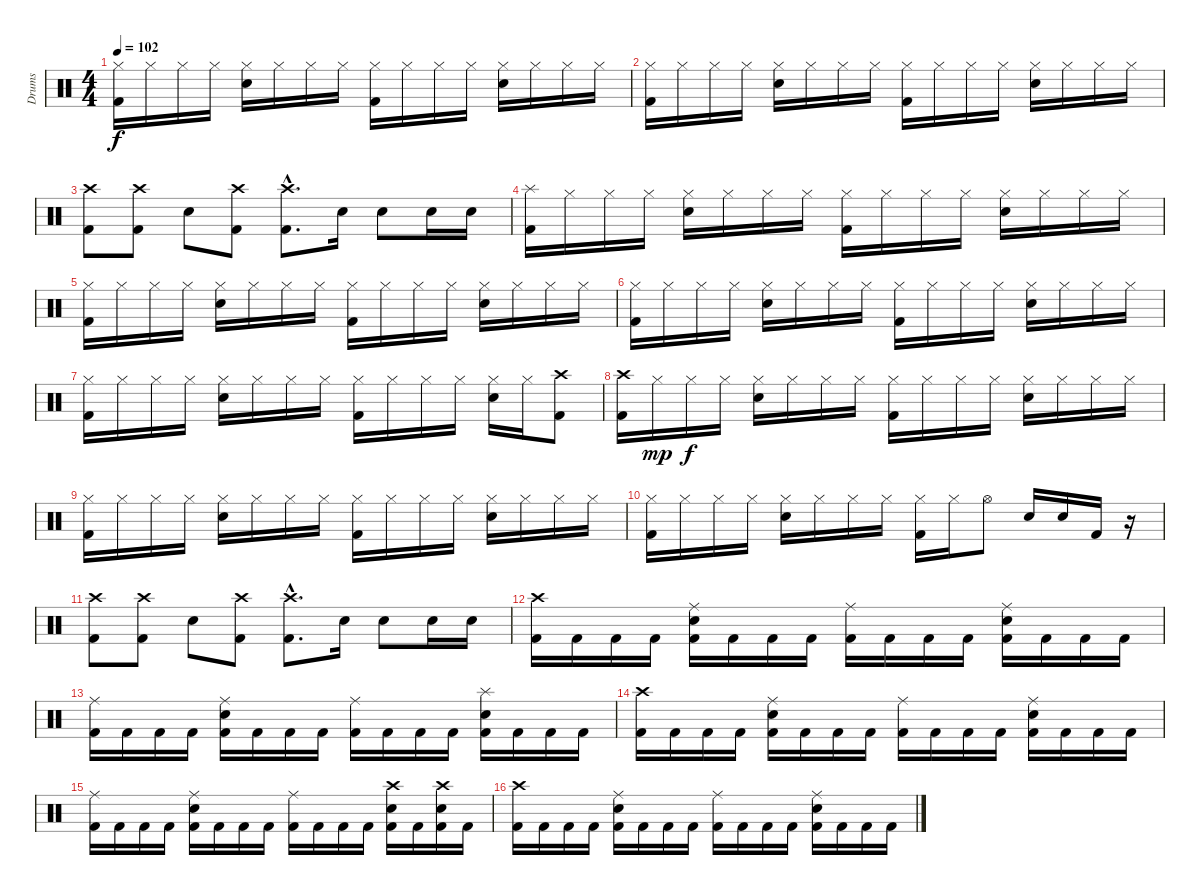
\track ("Drums" "Drums") {instrument percussion}
\staff {score}
\articulation defaults
\ts (4 4)
\tempo 102
\clef neutral
\ks c
("Hi-Hat (closed)" "Kick (hit) 2").16{dy f} "Hi-Hat (closed)".16 "Hi-Hat (closed)".16 "Hi-Hat (closed)".16 ("Hi-Hat (closed)" "Snare (hit) 2").16 "Hi-Hat (closed)".16 "Hi-Hat (closed)".16 "Hi-Hat (closed)".16 ("Hi-Hat (closed)" "Kick (hit) 2").16 "Hi-Hat (closed)".16 "Hi-Hat (closed)".16 "Hi-Hat (closed)".16 ("Hi-Hat (closed)" "Snare (hit) 2").16 "Hi-Hat (closed)".16 "Hi-Hat (closed)".16 "Hi-Hat (closed)".16 |
("Hi-Hat (closed)" "Kick (hit) 2").16 "Hi-Hat (closed)".16 "Hi-Hat (closed)".16 "Hi-Hat (closed)".16 ("Hi-Hat (closed)" "Snare (hit) 2").16 "Hi-Hat (closed)".16 "Hi-Hat (closed)".16 "Hi-Hat (closed)".16 ("Hi-Hat (closed)" "Kick (hit) 2").16 "Hi-Hat (closed)".16 "Hi-Hat (closed)".16 "Hi-Hat (closed)".16 ("Hi-Hat (closed)" "Snare (hit) 2").16 "Hi-Hat (closed)".16 "Hi-Hat (closed)".16 "Hi-Hat (closed)".16 |
("Crash high (hit)" "Kick (hit) 2").8 ("Crash high (hit)" "Kick (hit) 2").8 "Snare (hit) 2".8 ("Crash high (hit)" "Kick (hit) 2").8 ("Crash high (hit)"{hac} "Kick (hit) 2"{hac}).8{d} "Snare (hit) 2".16 "Snare (hit) 2".8 "Snare (hit) 2".16 "Snare (hit) 2".16 |
("Splash (hit)" "Kick (hit) 2").16 "Hi-Hat (closed)".16 "Hi-Hat (closed)".16 "Hi-Hat (closed)".16 ("Hi-Hat (closed)" "Snare (hit) 2").16 "Hi-Hat (closed)".16 "Hi-Hat (closed)".16 "Hi-Hat (closed)".16 ("Hi-Hat (closed)" "Kick (hit) 2").16 "Hi-Hat (closed)".16 "Hi-Hat (closed)".16 "Hi-Hat (closed)".16 ("Hi-Hat (closed)" "Snare (hit) 2").16 "Hi-Hat (closed)".16 "Hi-Hat (closed)".16 "Hi-Hat (closed)".16 |
("Hi-Hat (closed)" "Kick (hit) 2").16 "Hi-Hat (closed)".16 "Hi-Hat (closed)".16 "Hi-Hat (closed)".16 ("Hi-Hat (closed)" "Snare (hit) 2").16 "Hi-Hat (closed)".16 "Hi-Hat (closed)".16 "Hi-Hat (closed)".16 ("Hi-Hat (closed)" "Kick (hit) 2").16 "Hi-Hat (closed)".16 "Hi-Hat (closed)".16 "Hi-Hat (closed)".16 ("Hi-Hat (closed)" "Snare (hit) 2").16 "Hi-Hat (closed)".16 "Hi-Hat (closed)".16 "Hi-Hat (closed)".16 |
("Hi-Hat (closed)" "Kick (hit) 2").16 "Hi-Hat (closed)".16 "Hi-Hat (closed)".16 "Hi-Hat (closed)".16 ("Hi-Hat (closed)" "Snare (hit) 2").16 "Hi-Hat (closed)".16 "Hi-Hat (closed)".16 "Hi-Hat (closed)".16 ("Hi-Hat (closed)" "Kick (hit) 2").16 "Hi-Hat (closed)".16 "Hi-Hat (closed)".16 "Hi-Hat (closed)".16 ("Hi-Hat (closed)" "Snare (hit) 2").16 "Hi-Hat (closed)".16 "Hi-Hat (closed)".16 "Hi-Hat (closed)".16 |
("Hi-Hat (closed)" "Kick (hit) 2").16 "Hi-Hat (closed)".16 "Hi-Hat (closed)".16 "Hi-Hat (closed)".16 ("Hi-Hat (closed)" "Snare (hit) 2").16 "Hi-Hat (closed)".16 "Hi-Hat (closed)".16 "Hi-Hat (closed)".16 ("Hi-Hat (closed)" "Kick (hit) 2").16 "Hi-Hat (closed)".16 "Hi-Hat (closed)".16 "Hi-Hat (closed)".16 ("Hi-Hat (closed)" "Snare (hit) 2").16 "Hi-Hat (closed)".16 ("Crash high (hit)" "Kick (hit) 2").8 |
("Crash high (hit)" "Kick (hit) 2").16 "Hi-Hat (closed)".16{dy mp} "Hi-Hat (closed)".16{dy f} "Hi-Hat (closed)".16 ("Hi-Hat (closed)" "Snare (hit) 2").16 "Hi-Hat (closed)".16 "Hi-Hat (closed)".16 "Hi-Hat (closed)".16 ("Hi-Hat (closed)" "Kick (hit) 2").16 "Hi-Hat (closed)".16 "Hi-Hat (closed)".16 "Hi-Hat (closed)".16 ("Hi-Hat (closed)" "Snare (hit) 2").16 "Hi-Hat (closed)".16 "Hi-Hat (closed)".16 "Hi-Hat (closed)".16 |
("Hi-Hat (closed)" "Kick (hit) 2").16 "Hi-Hat (closed)".16 "Hi-Hat (closed)".16 "Hi-Hat (closed)".16 ("Hi-Hat (closed)" "Snare (hit) 2").16 "Hi-Hat (closed)".16 "Hi-Hat (closed)".16 "Hi-Hat (closed)".16 ("Hi-Hat (closed)" "Kick (hit) 2").16 "Hi-Hat (closed)".16 "Hi-Hat (closed)".16 "Hi-Hat (closed)".16 ("Hi-Hat (closed)" "Snare (hit) 2").16 "Hi-Hat (closed)".16 "Hi-Hat (closed)".16 "Hi-Hat (closed)".16 |
("Hi-Hat (closed)" "Kick (hit) 2").16 "Hi-Hat (closed)".16 "Hi-Hat (closed)".16 "Hi-Hat (closed)".16 ("Hi-Hat (closed)" "Snare (hit) 2").16 "Hi-Hat (closed)".16 "Hi-Hat (closed)".16 "Hi-Hat (closed)".16 ("Hi-Hat (closed)" "Kick (hit) 2").16 "Hi-Hat (closed)".16 "Hi-Hat (open)".8 "Snare (hit) 2".16 "Snare (hit) 2".16 "Kick (hit) 2".16 r.16 |
("Crash high (hit)" "Kick (hit) 2").8 ("Crash high (hit)" "Kick (hit) 2").8 "Snare (hit) 2".8 ("Crash high (hit)" "Kick (hit) 2").8 ("Crash high (hit)"{hac} "Kick (hit) 2"{hac}).8{d} "Snare (hit) 2".16 "Snare (hit) 2".8 "Snare (hit) 2".16 "Snare (hit) 2".16 |
("Crash high (hit)" "Kick (hit) 2").16 "Kick (hit) 2".16 "Kick (hit) 2".16 "Kick (hit) 2".16 ("Ride (middle)" "Snare (hit) 2" "Kick (hit) 2").16 "Kick (hit) 2".16 "Kick (hit) 2".16 "Kick (hit) 2".16 ("Ride (middle)" "Kick (hit) 2").16 "Kick (hit) 2".16 "Kick (hit) 2".16 "Kick (hit) 2".16 ("Ride (middle)" "Snare (hit) 2" "Kick (hit) 2").16 "Kick (hit) 2".16 "Kick (hit) 2".16 "Kick (hit) 2".16 |
("Ride (middle)" "Kick (hit) 2").16 "Kick (hit) 2".16 "Kick (hit) 2".16 "Kick (hit) 2".16 ("Ride (middle)" "Snare (hit) 2" "Kick (hit) 2").16 "Kick (hit) 2".16 "Kick (hit) 2".16 "Kick (hit) 2".16 ("Ride (middle)" "Kick (hit) 2").16 "Kick (hit) 2".16 "Kick (hit) 2".16 "Kick (hit) 2".16 ("Splash (hit)" "Snare (hit) 2" "Kick (hit) 2").16 "Kick (hit) 2".16 "Kick (hit) 2".16 "Kick (hit) 2".16 |
("Crash high (hit)" "Kick (hit) 2").16 "Kick (hit) 2".16 "Kick (hit) 2".16 "Kick (hit) 2".16 ("Ride (middle)" "Snare (hit) 2" "Kick (hit) 2").16 "Kick (hit) 2".16 "Kick (hit) 2".16 "Kick (hit) 2".16 ("Ride (middle)" "Kick (hit) 2").16 "Kick (hit) 2".16 "Kick (hit) 2".16 "Kick (hit) 2".16 ("Ride (middle)" "Snare (hit) 2" "Kick (hit) 2").16 "Kick (hit) 2".16 "Kick (hit) 2".16 "Kick (hit) 2".16 |
("Ride (middle)" "Kick (hit) 2").16 "Kick (hit) 2".16 "Kick (hit) 2".16 "Kick (hit) 2".16 ("Ride (middle)" "Snare (hit) 2" "Kick (hit) 2").16 "Kick (hit) 2".16 "Kick (hit) 2".16 "Kick (hit) 2".16 ("Ride (middle)" "Kick (hit) 2").16 "Kick (hit) 2".16 "Kick (hit) 2".16 "Kick (hit) 2".16 ("Crash high (hit)" "Snare (hit) 2" "Kick (hit) 2").16 "Kick (hit) 2".16 ("Crash high (hit)" "Snare (hit) 2" "Kick (hit) 2").16 "Kick (hit) 2".16 |
("Crash high (hit)" "Kick (hit) 2").16 "Kick (hit) 2".16 "Kick (hit) 2".16 "Kick (hit) 2".16 ("Ride (middle)" "Snare (hit) 2" "Kick (hit) 2").16 "Kick (hit) 2".16 "Kick (hit) 2".16 "Kick (hit) 2".16 ("Ride (middle)" "Kick (hit) 2").16 "Kick (hit) 2".16 "Kick (hit) 2".16 "Kick (hit) 2".16 ("Ride (middle)" "Snare (hit) 2" "Kick (hit) 2").16 "Kick (hit) 2".16 "Kick (hit) 2".16 "Kick (hit) 2".16
